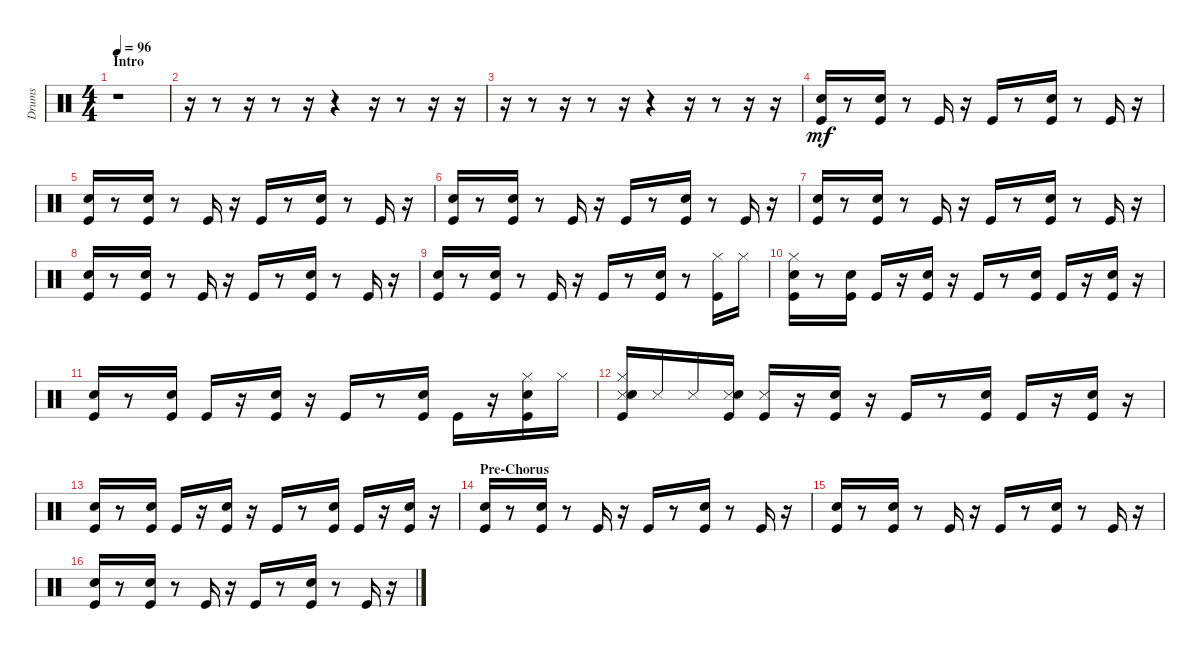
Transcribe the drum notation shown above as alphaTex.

\track ("Drums" "Drums") {instrument percussion}
\staff {score}
\articulation defaults
\ts (4 4)
\section ("" "Intro")
\tempo 96
\clef neutral
\ks aminor
r.1{dy mf} |
r.16 r.8 r.16 r.8 r.16 r.4 r.16 r.8 r.16 r.16 |
r.16 r.8 r.16 r.8 r.16 r.4 r.16 r.8 r.16 r.16 |
("Kick (hit)" "Hand Clap (hit)").16 r.8 ("Kick (hit)" "Hand Clap (hit)").16 r.8 "Kick (hit)".16 r.16 "Kick (hit)".16 r.8 ("Kick (hit)" "Hand Clap (hit)").16 r.8 "Kick (hit)".16 r.16 |
("Kick (hit)" "Hand Clap (hit)").16 r.8 ("Kick (hit)" "Hand Clap (hit)").16 r.8 "Kick (hit)".16 r.16 "Kick (hit)".16 r.8 ("Kick (hit)" "Hand Clap (hit)").16 r.8 "Kick (hit)".16 r.16 |
("Kick (hit)" "Hand Clap (hit)").16 r.8 ("Kick (hit)" "Hand Clap (hit)").16 r.8 "Kick (hit)".16 r.16 "Kick (hit)".16 r.8 ("Kick (hit)" "Hand Clap (hit)").16 r.8 "Kick (hit)".16 r.16 |
("Kick (hit)" "Hand Clap (hit)").16 r.8 ("Kick (hit)" "Hand Clap (hit)").16 r.8 "Kick (hit)".16 r.16 "Kick (hit)".16 r.8 ("Kick (hit)" "Hand Clap (hit)").16 r.8 "Kick (hit)".16 r.16 |
("Kick (hit)" "Hand Clap (hit)").16 r.8 ("Kick (hit)" "Hand Clap (hit)").16 r.8 "Kick (hit)".16 r.16 "Kick (hit)".16 r.8 ("Kick (hit)" "Hand Clap (hit)").16 r.8 "Kick (hit)".16 r.16 |
("Kick (hit)" "Hand Clap (hit)").16 r.8 ("Kick (hit)" "Hand Clap (hit)").16 r.8 "Kick (hit)".16 r.16 "Kick (hit)".16 r.8 ("Kick (hit)" "Hand Clap (hit)").16 r.8 ("Kick (hit)" "Hi-Hat (closed)").16 "Hi-Hat (closed)".16 |
("Kick (hit)" "Hand Clap (hit)" "Hi-Hat (closed)").16 r.8 ("Kick (hit)" "Hand Clap (hit)").16 "Kick (hit)".16 r.16 ("Kick (hit)" "Electric Snare (hit)").16 r.16 "Kick (hit)".16 r.8 ("Kick (hit)" "Hand Clap (hit)").16 "Kick (hit)".16 r.16 ("Kick (hit)" "Electric Snare (hit)").16 r.16 |
("Kick (hit)" "Hand Clap (hit)").16 r.8 ("Kick (hit)" "Hand Clap (hit)").16 "Kick (hit)".16 r.16 ("Kick (hit)" "Electric Snare (hit)").16 r.16 "Kick (hit)".16 r.8 ("Kick (hit)" "Hand Clap (hit)").16 "Kick (hit)".16 r.16 ("Kick (hit)" "Electric Snare (hit)" "Hi-Hat (closed)").16 "Hi-Hat (closed)".16 |
("Metronome (hit)" "Kick (hit)" "Hand Clap (hit)" "Hi-Hat (closed)").16 "Metronome (hit)".16 "Metronome (hit)".16 ("Metronome (hit)" "Kick (hit)" "Hand Clap (hit)").16 ("Metronome (hit)" "Kick (hit)").16 r.16 ("Kick (hit)" "Electric Snare (hit)").16 r.16 "Kick (hit)".16 r.8 ("Kick (hit)" "Hand Clap (hit)").16 "Kick (hit)".16 r.16 ("Kick (hit)" "Electric Snare (hit)").16 r.16 |
("Kick (hit)" "Hand Clap (hit)").16 r.8 ("Kick (hit)" "Hand Clap (hit)").16 "Kick (hit)".16 r.16 ("Kick (hit)" "Electric Snare (hit)").16 r.16 "Kick (hit)".16 r.8 ("Kick (hit)" "Hand Clap (hit)").16 "Kick (hit)".16 r.16 ("Kick (hit)" "Electric Snare (hit)").16 r.16 |
\section ("" "Pre-Chorus")
("Kick (hit)" "Hand Clap (hit)").16 r.8 ("Kick (hit)" "Hand Clap (hit)").16 r.8 "Kick (hit)".16 r.16 "Kick (hit)".16 r.8 ("Kick (hit)" "Hand Clap (hit)").16 r.8 "Kick (hit)".16 r.16 |
("Kick (hit)" "Hand Clap (hit)").16 r.8 ("Kick (hit)" "Hand Clap (hit)").16 r.8 "Kick (hit)".16 r.16 "Kick (hit)".16 r.8 ("Kick (hit)" "Hand Clap (hit)").16 r.8 "Kick (hit)".16 r.16 |
("Kick (hit)" "Hand Clap (hit)").16 r.8 ("Kick (hit)" "Hand Clap (hit)").16 r.8 "Kick (hit)".16 r.16 "Kick (hit)".16 r.8 ("Kick (hit)" "Hand Clap (hit)").16 r.8 "Kick (hit)".16 r.16
